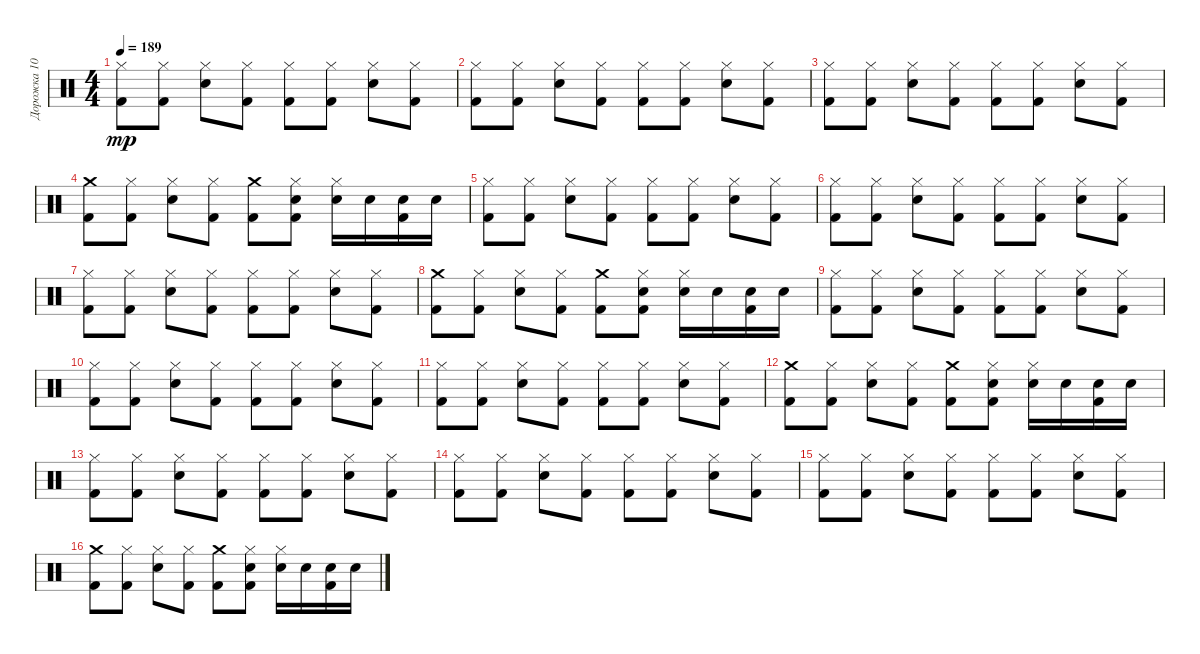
\track ("Дорожка 10" "Дорожка 10") {instrument percussion}
\staff {score}
\articulation defaults
\ts (4 4)
\tempo 189
\clef neutral
\ks c
("Kick (hit) 2" "Hi-Hat (closed)").8{dy mp} ("Kick (hit) 2" "Hi-Hat (closed)").8 ("Snare (hit) 2" "Hi-Hat (closed)").8 ("Kick (hit) 2" "Hi-Hat (closed)").8 ("Kick (hit) 2" "Hi-Hat (closed)").8 ("Kick (hit) 2" "Hi-Hat (closed)").8 ("Snare (hit) 2" "Hi-Hat (closed)").8 ("Kick (hit) 2" "Hi-Hat (closed)").8 |
("Kick (hit) 2" "Hi-Hat (closed)").8 ("Kick (hit) 2" "Hi-Hat (closed)").8 ("Snare (hit) 2" "Hi-Hat (closed)").8 ("Kick (hit) 2" "Hi-Hat (closed)").8 ("Kick (hit) 2" "Hi-Hat (closed)").8 ("Kick (hit) 2" "Hi-Hat (closed)").8 ("Snare (hit) 2" "Hi-Hat (closed)").8 ("Kick (hit) 2" "Hi-Hat (closed)").8 |
("Kick (hit) 2" "Hi-Hat (closed)").8 ("Kick (hit) 2" "Hi-Hat (closed)").8 ("Snare (hit) 2" "Hi-Hat (closed)").8 ("Kick (hit) 2" "Hi-Hat (closed)").8 ("Kick (hit) 2" "Hi-Hat (closed)").8 ("Kick (hit) 2" "Hi-Hat (closed)").8 ("Snare (hit) 2" "Hi-Hat (closed)").8 ("Kick (hit) 2" "Hi-Hat (closed)").8 |
("Kick (hit) 2" "Crash medium (hit)").8 ("Kick (hit) 2" "Hi-Hat (closed)").8 ("Snare (hit) 2" "Hi-Hat (closed)").8 ("Kick (hit) 2" "Hi-Hat (closed)").8 ("Kick (hit) 2" "Crash medium (hit)").8 ("Kick (hit) 2" "Snare (hit) 2" "Hi-Hat (closed)").8 ("Snare (hit) 2" "Hi-Hat (closed)").16 "Snare (hit) 2".16 ("Kick (hit) 2" "Snare (hit) 2").16 "Snare (hit) 2".16 |
("Kick (hit) 2" "Hi-Hat (closed)").8 ("Kick (hit) 2" "Hi-Hat (closed)").8 ("Snare (hit) 2" "Hi-Hat (closed)").8 ("Kick (hit) 2" "Hi-Hat (closed)").8 ("Kick (hit) 2" "Hi-Hat (closed)").8 ("Kick (hit) 2" "Hi-Hat (closed)").8 ("Snare (hit) 2" "Hi-Hat (closed)").8 ("Kick (hit) 2" "Hi-Hat (closed)").8 |
("Kick (hit) 2" "Hi-Hat (closed)").8 ("Kick (hit) 2" "Hi-Hat (closed)").8 ("Snare (hit) 2" "Hi-Hat (closed)").8 ("Kick (hit) 2" "Hi-Hat (closed)").8 ("Kick (hit) 2" "Hi-Hat (closed)").8 ("Kick (hit) 2" "Hi-Hat (closed)").8 ("Snare (hit) 2" "Hi-Hat (closed)").8 ("Kick (hit) 2" "Hi-Hat (closed)").8 |
("Kick (hit) 2" "Hi-Hat (closed)").8 ("Kick (hit) 2" "Hi-Hat (closed)").8 ("Snare (hit) 2" "Hi-Hat (closed)").8 ("Kick (hit) 2" "Hi-Hat (closed)").8 ("Kick (hit) 2" "Hi-Hat (closed)").8 ("Kick (hit) 2" "Hi-Hat (closed)").8 ("Snare (hit) 2" "Hi-Hat (closed)").8 ("Kick (hit) 2" "Hi-Hat (closed)").8 |
("Kick (hit) 2" "Crash medium (hit)").8 ("Kick (hit) 2" "Hi-Hat (closed)").8 ("Snare (hit) 2" "Hi-Hat (closed)").8 ("Kick (hit) 2" "Hi-Hat (closed)").8 ("Kick (hit) 2" "Crash medium (hit)").8 ("Kick (hit) 2" "Snare (hit) 2" "Hi-Hat (closed)").8 ("Snare (hit) 2" "Hi-Hat (closed)").16 "Snare (hit) 2".16 ("Kick (hit) 2" "Snare (hit) 2").16 "Snare (hit) 2".16 |
("Kick (hit) 2" "Hi-Hat (closed)").8 ("Kick (hit) 2" "Hi-Hat (closed)").8 ("Snare (hit) 2" "Hi-Hat (closed)").8 ("Kick (hit) 2" "Hi-Hat (closed)").8 ("Kick (hit) 2" "Hi-Hat (closed)").8 ("Kick (hit) 2" "Hi-Hat (closed)").8 ("Snare (hit) 2" "Hi-Hat (closed)").8 ("Kick (hit) 2" "Hi-Hat (closed)").8 |
("Kick (hit) 2" "Hi-Hat (closed)").8 ("Kick (hit) 2" "Hi-Hat (closed)").8 ("Snare (hit) 2" "Hi-Hat (closed)").8 ("Kick (hit) 2" "Hi-Hat (closed)").8 ("Kick (hit) 2" "Hi-Hat (closed)").8 ("Kick (hit) 2" "Hi-Hat (closed)").8 ("Snare (hit) 2" "Hi-Hat (closed)").8 ("Kick (hit) 2" "Hi-Hat (closed)").8 |
("Kick (hit) 2" "Hi-Hat (closed)").8 ("Kick (hit) 2" "Hi-Hat (closed)").8 ("Snare (hit) 2" "Hi-Hat (closed)").8 ("Kick (hit) 2" "Hi-Hat (closed)").8 ("Kick (hit) 2" "Hi-Hat (closed)").8 ("Kick (hit) 2" "Hi-Hat (closed)").8 ("Snare (hit) 2" "Hi-Hat (closed)").8 ("Kick (hit) 2" "Hi-Hat (closed)").8 |
("Kick (hit) 2" "Crash medium (hit)").8 ("Kick (hit) 2" "Hi-Hat (closed)").8 ("Snare (hit) 2" "Hi-Hat (closed)").8 ("Kick (hit) 2" "Hi-Hat (closed)").8 ("Kick (hit) 2" "Crash medium (hit)").8 ("Kick (hit) 2" "Snare (hit) 2" "Hi-Hat (closed)").8 ("Snare (hit) 2" "Hi-Hat (closed)").16 "Snare (hit) 2".16 ("Kick (hit) 2" "Snare (hit) 2").16 "Snare (hit) 2".16 |
("Kick (hit) 2" "Hi-Hat (closed)").8 ("Kick (hit) 2" "Hi-Hat (closed)").8 ("Snare (hit) 2" "Hi-Hat (closed)").8 ("Kick (hit) 2" "Hi-Hat (closed)").8 ("Kick (hit) 2" "Hi-Hat (closed)").8 ("Kick (hit) 2" "Hi-Hat (closed)").8 ("Snare (hit) 2" "Hi-Hat (closed)").8 ("Kick (hit) 2" "Hi-Hat (closed)").8 |
("Kick (hit) 2" "Hi-Hat (closed)").8 ("Kick (hit) 2" "Hi-Hat (closed)").8 ("Snare (hit) 2" "Hi-Hat (closed)").8 ("Kick (hit) 2" "Hi-Hat (closed)").8 ("Kick (hit) 2" "Hi-Hat (closed)").8 ("Kick (hit) 2" "Hi-Hat (closed)").8 ("Snare (hit) 2" "Hi-Hat (closed)").8 ("Kick (hit) 2" "Hi-Hat (closed)").8 |
("Kick (hit) 2" "Hi-Hat (closed)").8 ("Kick (hit) 2" "Hi-Hat (closed)").8 ("Snare (hit) 2" "Hi-Hat (closed)").8 ("Kick (hit) 2" "Hi-Hat (closed)").8 ("Kick (hit) 2" "Hi-Hat (closed)").8 ("Kick (hit) 2" "Hi-Hat (closed)").8 ("Snare (hit) 2" "Hi-Hat (closed)").8 ("Kick (hit) 2" "Hi-Hat (closed)").8 |
("Kick (hit) 2" "Crash medium (hit)").8 ("Kick (hit) 2" "Hi-Hat (closed)").8 ("Snare (hit) 2" "Hi-Hat (closed)").8 ("Kick (hit) 2" "Hi-Hat (closed)").8 ("Kick (hit) 2" "Crash medium (hit)").8 ("Kick (hit) 2" "Snare (hit) 2" "Hi-Hat (closed)").8 ("Snare (hit) 2" "Hi-Hat (closed)").16 "Snare (hit) 2".16 ("Kick (hit) 2" "Snare (hit) 2").16 "Snare (hit) 2".16
